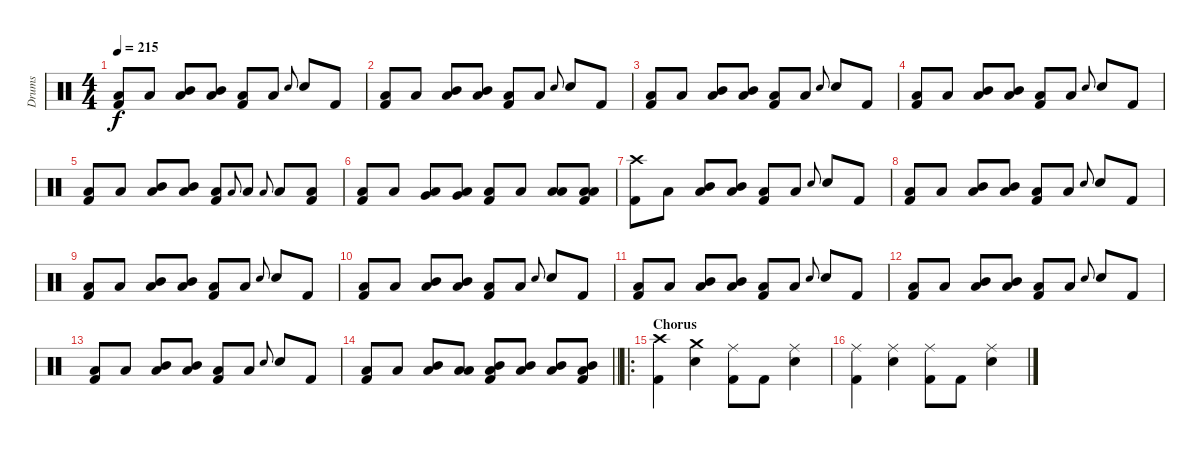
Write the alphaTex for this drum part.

\track ("Drums" "Drums") {instrument percussion}
\staff {score}
\articulation defaults
\ts (4 4)
\tempo 215
\clef neutral
\ks c
("Low Tom (hit)" "Kick (hit) 2").8{dy f} "Low Tom (hit)".8 ("Mid Tom (hit)" "Low Tom (hit)").8 ("Mid Tom (hit)" "Low Tom (hit)").8 ("Low Tom (hit)" "Kick (hit) 2").8 "Low Tom (hit)".8 "Snare (hit) 2".8{gr onbeat} "Snare (hit) 2".8 "Kick (hit) 2".8 |
("Low Tom (hit)" "Kick (hit) 2").8 "Low Tom (hit)".8 ("Mid Tom (hit)" "Low Tom (hit)").8 ("Mid Tom (hit)" "Low Tom (hit)").8 ("Low Tom (hit)" "Kick (hit) 2").8 "Low Tom (hit)".8 "Snare (hit) 2".8{gr onbeat} "Snare (hit) 2".8 "Kick (hit) 2".8 |
("Low Tom (hit)" "Kick (hit) 2").8 "Low Tom (hit)".8 ("Mid Tom (hit)" "Low Tom (hit)").8 ("Mid Tom (hit)" "Low Tom (hit)").8 ("Low Tom (hit)" "Kick (hit) 2").8 "Low Tom (hit)".8 "Snare (hit) 2".8{gr onbeat} "Snare (hit) 2".8 "Kick (hit) 2".8 |
("Low Tom (hit)" "Kick (hit) 2").8 "Low Tom (hit)".8 ("Mid Tom (hit)" "Low Tom (hit)").8 ("Mid Tom (hit)" "Low Tom (hit)").8 ("Low Tom (hit)" "Kick (hit) 2").8 "Low Tom (hit)".8 "Snare (hit) 2".8{gr onbeat} "Snare (hit) 2".8 "Kick (hit) 2".8 |
("Low Tom (hit)" "Kick (hit) 2").8 "Low Tom (hit)".8 ("Mid Tom (hit)" "Low Tom (hit)").8 ("Mid Tom (hit)" "Low Tom (hit)").8 ("Low Tom (hit)" "Kick (hit) 2").8 "Low Tom (hit)".8{gr onbeat} "Low Tom (hit)".8 "Low Tom (hit)".8{gr onbeat} "Low Tom (hit)".8 ("Low Tom (hit)" "Kick (hit) 2").8 |
("Low Tom (hit)" "Kick (hit) 2").8 "Low Tom (hit)".8 ("Very Low Tom (hit)" "Low Tom (hit)").8 ("Very Low Tom (hit)" "Low Tom (hit)").8 ("Low Tom (hit)" "Kick (hit) 2").8 "Low Tom (hit)".8 ("Low Floor Tom (hit)" "Low Tom (hit)").8 ("Low Floor Tom (hit)" "Low Tom (hit)" "Kick (hit) 2").8 |
("Crash high (hit)" "Kick (hit) 2").8 "Low Tom (hit)".8 ("Mid Tom (hit)" "Low Tom (hit)").8 ("Mid Tom (hit)" "Low Tom (hit)").8 ("Low Tom (hit)" "Kick (hit) 2").8 "Low Tom (hit)".8 "Snare (hit) 2".8{gr onbeat} "Snare (hit) 2".8 "Kick (hit) 2".8 |
("Low Tom (hit)" "Kick (hit) 2").8 "Low Tom (hit)".8 ("Mid Tom (hit)" "Low Tom (hit)").8 ("Mid Tom (hit)" "Low Tom (hit)").8 ("Low Tom (hit)" "Kick (hit) 2").8 "Low Tom (hit)".8 "Snare (hit) 2".8{gr onbeat} "Snare (hit) 2".8 "Kick (hit) 2".8 |
("Low Tom (hit)" "Kick (hit) 2").8 "Low Tom (hit)".8 ("Mid Tom (hit)" "Low Tom (hit)").8 ("Mid Tom (hit)" "Low Tom (hit)").8 ("Low Tom (hit)" "Kick (hit) 2").8 "Low Tom (hit)".8 "Snare (hit) 2".8{gr onbeat} "Snare (hit) 2".8 "Kick (hit) 2".8 |
("Low Tom (hit)" "Kick (hit) 2").8 "Low Tom (hit)".8 ("Mid Tom (hit)" "Low Tom (hit)").8 ("Mid Tom (hit)" "Low Tom (hit)").8 ("Low Tom (hit)" "Kick (hit) 2").8 "Low Tom (hit)".8 "Snare (hit) 2".8{gr onbeat} "Snare (hit) 2".8 "Kick (hit) 2".8 |
("Low Tom (hit)" "Kick (hit) 2").8 "Low Tom (hit)".8 ("Mid Tom (hit)" "Low Tom (hit)").8 ("Mid Tom (hit)" "Low Tom (hit)").8 ("Low Tom (hit)" "Kick (hit) 2").8 "Low Tom (hit)".8 "Snare (hit) 2".8{gr onbeat} "Snare (hit) 2".8 "Kick (hit) 2".8 |
("Low Tom (hit)" "Kick (hit) 2").8 "Low Tom (hit)".8 ("Mid Tom (hit)" "Low Tom (hit)").8 ("Mid Tom (hit)" "Low Tom (hit)").8 ("Low Tom (hit)" "Kick (hit) 2").8 "Low Tom (hit)".8 "Snare (hit) 2".8{gr onbeat} "Snare (hit) 2".8 "Kick (hit) 2".8 |
("Low Tom (hit)" "Kick (hit) 2").8 "Low Tom (hit)".8 ("Mid Tom (hit)" "Low Tom (hit)").8 ("Mid Tom (hit)" "Low Tom (hit)").8 ("Low Tom (hit)" "Kick (hit) 2").8 "Low Tom (hit)".8 "Snare (hit) 2".8{gr onbeat} "Snare (hit) 2".8 "Kick (hit) 2".8 |
\barLineRight lightlight
("Low Tom (hit)" "Kick (hit) 2").8 "Low Tom (hit)".8 ("Mid Tom (hit)" "Low Tom (hit)").8 ("Low Tom (hit)" "Low Tom (hit)").8 ("Mid Tom (hit)" "Low Tom (hit)" "Kick (hit) 2").8 ("Mid Tom (hit)" "Low Tom (hit)").8 ("Mid Tom (hit)" "Low Tom (hit)").8 ("Mid Tom (hit)" "Low Tom (hit)" "Kick (hit) 2").8 |
\ro
\section ("" "Chorus")
("Crash high (hit)" "Kick (hit) 2").4 ("Crash medium (hit)" "Snare (hit) 2").4 ("Ride (middle)" "Kick (hit) 2").8 "Kick (hit) 2".8 ("Ride (middle)" "Snare (hit) 2").4 |
("Ride (middle)" "Kick (hit) 2").4 ("Ride (middle)" "Snare (hit) 2").4 ("Ride (middle)" "Kick (hit) 2").8 "Kick (hit) 2".8 ("Ride (middle)" "Snare (hit) 2").4
